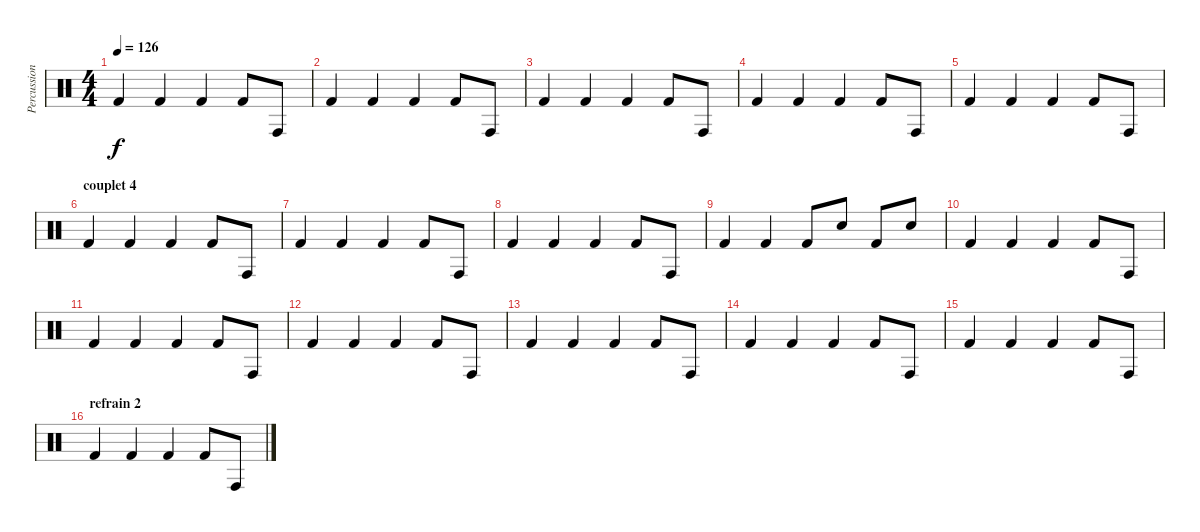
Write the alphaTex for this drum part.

\track ("Percussions" "Percussion") {instrument percussion}
\staff {score}
\articulation defaults
\ts (4 4)
\tempo 126
\clef neutral
\ks c "Kick (hit) 2".4{dy f} "Kick (hit) 2".4 "Kick (hit) 2".4 "Kick (hit) 2".8 "Conga high (hit)".8
|
"Kick (hit) 2".4 "Kick (hit) 2".4 "Kick (hit) 2".4 "Kick (hit) 2".8 "Conga high (hit)".8 |
"Kick (hit) 2".4 "Kick (hit) 2".4 "Kick (hit) 2".4 "Kick (hit) 2".8 "Conga high (hit)".8 |
"Kick (hit) 2".4 "Kick (hit) 2".4 "Kick (hit) 2".4 "Kick (hit) 2".8 "Conga high (hit)".8 |
"Kick (hit) 2".4 "Kick (hit) 2".4 "Kick (hit) 2".4 "Kick (hit) 2".8 "Conga high (hit)".8 |
\section ("" "couplet 4")
"Kick (hit) 2".4 "Kick (hit) 2".4 "Kick (hit) 2".4 "Kick (hit) 2".8 "Conga high (hit)".8 |
"Kick (hit) 2".4 "Kick (hit) 2".4 "Kick (hit) 2".4 "Kick (hit) 2".8 "Conga high (hit)".8 |
"Kick (hit) 2".4 "Kick (hit) 2".4 "Kick (hit) 2".4 "Kick (hit) 2".8 "Conga high (hit)".8 |
"Kick (hit) 2".4 "Kick (hit) 2".4 "Kick (hit) 2".8 "Electric Snare (hit)".8 "Kick (hit) 2".8 "Electric Snare (hit)".8 |
"Kick (hit) 2".4 "Kick (hit) 2".4 "Kick (hit) 2".4 "Kick (hit) 2".8 "Conga high (hit)".8 |
"Kick (hit) 2".4 "Kick (hit) 2".4 "Kick (hit) 2".4 "Kick (hit) 2".8 "Conga high (hit)".8 |
"Kick (hit) 2".4 "Kick (hit) 2".4 "Kick (hit) 2".4 "Kick (hit) 2".8 "Conga high (hit)".8 |
"Kick (hit) 2".4 "Kick (hit) 2".4 "Kick (hit) 2".4 "Kick (hit) 2".8 "Conga high (hit)".8 |
"Kick (hit) 2".4 "Kick (hit) 2".4 "Kick (hit) 2".4 "Kick (hit) 2".8 "Conga high (hit)".8 |
"Kick (hit) 2".4 "Kick (hit) 2".4 "Kick (hit) 2".4 "Kick (hit) 2".8 "Conga high (hit)".8 |
\section ("" "refrain 2")
"Kick (hit) 2".4 "Kick (hit) 2".4 "Kick (hit) 2".4 "Kick (hit) 2".8 "Conga high (hit)".8
